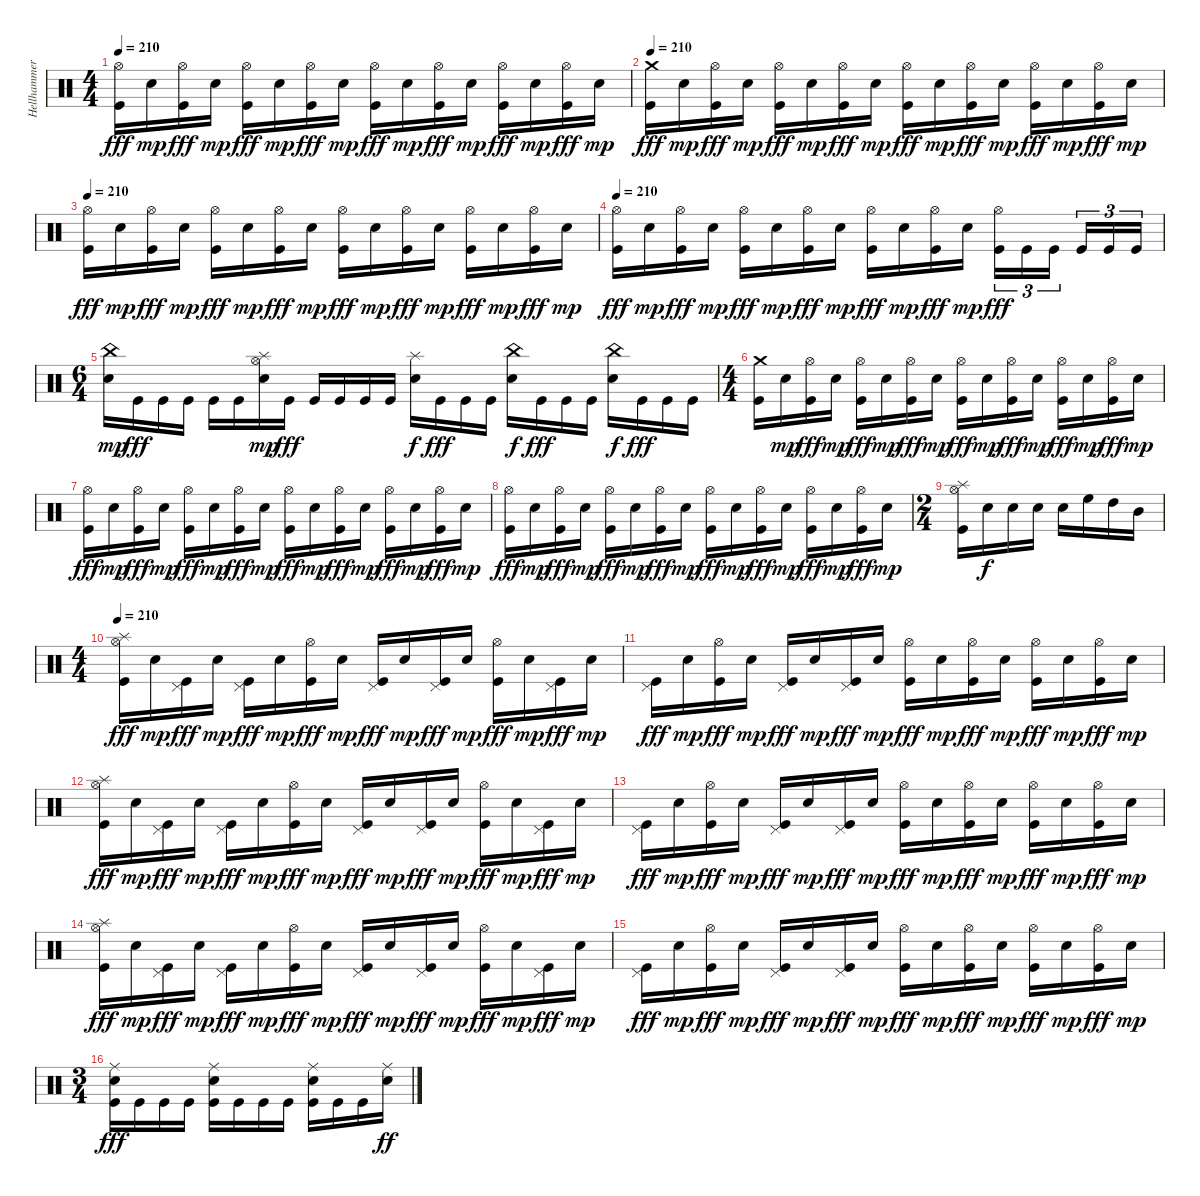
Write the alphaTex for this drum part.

\track ("Hellhammer" "Hellhammer") {instrument percussion}
\staff {score}
\articulation defaults
\ts (4 4)
\tempo 210
\clef neutral
\ks c
("Hi-Hat (open)" "Kick (hit)").16{dy fff} "Electric Snare (hit)".16{dy mp} ("Hi-Hat (open)" "Kick (hit)").16{dy fff} "Electric Snare (hit)".16{dy mp} ("Hi-Hat (open)" "Kick (hit)").16{dy fff} "Electric Snare (hit)".16{dy mp} ("Hi-Hat (open)" "Kick (hit)").16{dy fff} "Electric Snare (hit)".16{dy mp} ("Hi-Hat (open)" "Kick (hit)").16{dy fff} "Electric Snare (hit)".16{dy mp} ("Hi-Hat (open)" "Kick (hit)").16{dy fff} "Electric Snare (hit)".16{dy mp} ("Hi-Hat (open)" "Kick (hit)").16{dy fff} "Electric Snare (hit)".16{dy mp} ("Hi-Hat (open)" "Kick (hit)").16{dy fff} "Electric Snare (hit)".16{dy mp} |
\tempo 210
("Crash medium (hit)" "Kick (hit)").16{dy fff} "Electric Snare (hit)".16{dy mp} ("Hi-Hat (open)" "Kick (hit)").16{dy fff} "Electric Snare (hit)".16{dy mp} ("Hi-Hat (open)" "Kick (hit)").16{dy fff} "Electric Snare (hit)".16{dy mp} ("Hi-Hat (open)" "Kick (hit)").16{dy fff} "Electric Snare (hit)".16{dy mp} ("Hi-Hat (open)" "Kick (hit)").16{dy fff} "Electric Snare (hit)".16{dy mp} ("Hi-Hat (open)" "Kick (hit)").16{dy fff} "Electric Snare (hit)".16{dy mp} ("Hi-Hat (open)" "Kick (hit)").16{dy fff} "Electric Snare (hit)".16{dy mp} ("Hi-Hat (open)" "Kick (hit)").16{dy fff} "Electric Snare (hit)".16{dy mp} |
\tempo 210
("Hi-Hat (open)" "Kick (hit)").16{dy fff} "Electric Snare (hit)".16{dy mp} ("Hi-Hat (open)" "Kick (hit)").16{dy fff} "Electric Snare (hit)".16{dy mp} ("Hi-Hat (open)" "Kick (hit)").16{dy fff} "Electric Snare (hit)".16{dy mp} ("Hi-Hat (open)" "Kick (hit)").16{dy fff} "Electric Snare (hit)".16{dy mp} ("Hi-Hat (open)" "Kick (hit)").16{dy fff} "Electric Snare (hit)".16{dy mp} ("Hi-Hat (open)" "Kick (hit)").16{dy fff} "Electric Snare (hit)".16{dy mp} ("Hi-Hat (open)" "Kick (hit)").16{dy fff} "Electric Snare (hit)".16{dy mp} ("Hi-Hat (open)" "Kick (hit)").16{dy fff} "Electric Snare (hit)".16{dy mp} |
\tempo 210
("Hi-Hat (open)" "Kick (hit)").16{dy fff} "Electric Snare (hit)".16{dy mp} ("Hi-Hat (open)" "Kick (hit)").16{dy fff} "Electric Snare (hit)".16{dy mp} ("Hi-Hat (open)" "Kick (hit)").16{dy fff} "Electric Snare (hit)".16{dy mp} ("Hi-Hat (open)" "Kick (hit)").16{dy fff} "Electric Snare (hit)".16{dy mp} ("Hi-Hat (open)" "Kick (hit)").16{dy fff} "Electric Snare (hit)".16{dy mp} ("Hi-Hat (open)" "Kick (hit)").16{dy fff} "Electric Snare (hit)".16{dy mp} ("Hi-Hat (open)" "Kick (hit)").16{tu (3 2) dy fff} "Kick (hit)".16{tu (3 2)} "Kick (hit)".16{tu (3 2)} "Kick (hit)".16{tu (3 2)} "Kick (hit)".16{tu (3 2)} "Kick (hit)".16{tu (3 2)} |
\ts (6 4)
("China (hit)" "Electric Snare (hit)").16{dy mp} "Kick (hit)".16{dy fff} "Kick (hit)".16 "Kick (hit)".16 "Kick (hit)".16 "Kick (hit)".16 ("Hi-Hat (open)" "Splash (hit)" "Electric Snare (hit)").16{dy mp} "Kick (hit)".16{dy fff} "Kick (hit)".16 "Kick (hit)".16 "Kick (hit)".16 "Kick (hit)".16 ("Splash (hit)" "Electric Snare (hit)").16{dy f} "Kick (hit)".16{dy fff} "Kick (hit)".16 "Kick (hit)".16 ("China (hit)" "Electric Snare (hit)").16{dy f} "Kick (hit)".16{dy fff} "Kick (hit)".16 "Kick (hit)".16 ("China (hit)" "Electric Snare (hit)").16{dy f} "Kick (hit)".16{dy fff} "Kick (hit)".16 "Kick (hit)".16 |
\ts (4 4)
("Crash medium (hit)" "Kick (hit)").16 "Electric Snare (hit)".16{dy mp} ("Hi-Hat (open)" "Kick (hit)").16{dy fff} "Electric Snare (hit)".16{dy mp} ("Hi-Hat (open)" "Kick (hit)").16{dy fff} "Electric Snare (hit)".16{dy mp} ("Hi-Hat (open)" "Kick (hit)").16{dy fff} "Electric Snare (hit)".16{dy mp} ("Hi-Hat (open)" "Kick (hit)").16{dy fff} "Electric Snare (hit)".16{dy mp} ("Hi-Hat (open)" "Kick (hit)").16{dy fff} "Electric Snare (hit)".16{dy mp} ("Hi-Hat (open)" "Kick (hit)").16{dy fff} "Electric Snare (hit)".16{dy mp} ("Hi-Hat (open)" "Kick (hit)").16{dy fff} "Electric Snare (hit)".16{dy mp} |
("Hi-Hat (open)" "Kick (hit)").16{dy fff} "Electric Snare (hit)".16{dy mp} ("Hi-Hat (open)" "Kick (hit)").16{dy fff} "Electric Snare (hit)".16{dy mp} ("Hi-Hat (open)" "Kick (hit)").16{dy fff} "Electric Snare (hit)".16{dy mp} ("Hi-Hat (open)" "Kick (hit)").16{dy fff} "Electric Snare (hit)".16{dy mp} ("Hi-Hat (open)" "Kick (hit)").16{dy fff} "Electric Snare (hit)".16{dy mp} ("Hi-Hat (open)" "Kick (hit)").16{dy fff} "Electric Snare (hit)".16{dy mp} ("Hi-Hat (open)" "Kick (hit)").16{dy fff} "Electric Snare (hit)".16{dy mp} ("Hi-Hat (open)" "Kick (hit)").16{dy fff} "Electric Snare (hit)".16{dy mp} |
("Hi-Hat (open)" "Kick (hit)").16{dy fff} "Electric Snare (hit)".16{dy mp} ("Hi-Hat (open)" "Kick (hit)").16{dy fff} "Electric Snare (hit)".16{dy mp} ("Hi-Hat (open)" "Kick (hit)").16{dy fff} "Electric Snare (hit)".16{dy mp} ("Hi-Hat (open)" "Kick (hit)").16{dy fff} "Electric Snare (hit)".16{dy mp} ("Hi-Hat (open)" "Kick (hit)").16{dy fff} "Electric Snare (hit)".16{dy mp} ("Hi-Hat (open)" "Kick (hit)").16{dy fff} "Electric Snare (hit)".16{dy mp} ("Hi-Hat (open)" "Kick (hit)").16{dy fff} "Electric Snare (hit)".16{dy mp} ("Hi-Hat (open)" "Kick (hit)").16{dy fff} "Electric Snare (hit)".16{dy mp} |
\ts (2 4)
("Splash (hit)" "Hi-Hat (open)" "Kick (hit)").16 "Electric Snare (hit)".16{dy f} "Electric Snare (hit)".16 "Electric Snare (hit)".16 "Electric Snare (hit)".16 "High Floor Tom (hit)".16 "High Tom (hit)".16 "Mid Tom (hit)".16 |
\ts (4 4)
\tempo 210
("Splash (hit)" "Hi-Hat (open)" "Kick (hit)").16{dy fff} "Electric Snare (hit)".16{dy mp} ("Pedal Hi-Hat (hit)" "Kick (hit)").16{dy fff} "Electric Snare (hit)".16{dy mp} ("Pedal Hi-Hat (hit)" "Kick (hit)").16{dy fff} "Electric Snare (hit)".16{dy mp} ("Hi-Hat (open)" "Kick (hit)").16{dy fff} "Electric Snare (hit)".16{dy mp} ("Pedal Hi-Hat (hit)" "Kick (hit)").16{dy fff} "Electric Snare (hit)".16{dy mp} ("Pedal Hi-Hat (hit)" "Kick (hit)").16{dy fff} "Electric Snare (hit)".16{dy mp} ("Hi-Hat (open)" "Kick (hit)").16{dy fff} "Electric Snare (hit)".16{dy mp} ("Pedal Hi-Hat (hit)" "Kick (hit)").16{dy fff} "Electric Snare (hit)".16{dy mp} |
("Pedal Hi-Hat (hit)" "Kick (hit)").16{dy fff} "Electric Snare (hit)".16{dy mp} ("Hi-Hat (open)" "Kick (hit)").16{dy fff} "Electric Snare (hit)".16{dy mp} ("Pedal Hi-Hat (hit)" "Kick (hit)").16{dy fff} "Electric Snare (hit)".16{dy mp} ("Pedal Hi-Hat (hit)" "Kick (hit)").16{dy fff} "Electric Snare (hit)".16{dy mp} ("Hi-Hat (open)" "Kick (hit)").16{dy fff} "Electric Snare (hit)".16{dy mp} ("Hi-Hat (open)" "Kick (hit)").16{dy fff} "Electric Snare (hit)".16{dy mp} ("Hi-Hat (open)" "Kick (hit)").16{dy fff} "Electric Snare (hit)".16{dy mp} ("Hi-Hat (open)" "Kick (hit)").16{dy fff} "Electric Snare (hit)".16{dy mp} |
("Splash (hit)" "Hi-Hat (open)" "Kick (hit)").16{dy fff} "Electric Snare (hit)".16{dy mp} ("Pedal Hi-Hat (hit)" "Kick (hit)").16{dy fff} "Electric Snare (hit)".16{dy mp} ("Pedal Hi-Hat (hit)" "Kick (hit)").16{dy fff} "Electric Snare (hit)".16{dy mp} ("Hi-Hat (open)" "Kick (hit)").16{dy fff} "Electric Snare (hit)".16{dy mp} ("Pedal Hi-Hat (hit)" "Kick (hit)").16{dy fff} "Electric Snare (hit)".16{dy mp} ("Pedal Hi-Hat (hit)" "Kick (hit)").16{dy fff} "Electric Snare (hit)".16{dy mp} ("Hi-Hat (open)" "Kick (hit)").16{dy fff} "Electric Snare (hit)".16{dy mp} ("Pedal Hi-Hat (hit)" "Kick (hit)").16{dy fff} "Electric Snare (hit)".16{dy mp} |
("Pedal Hi-Hat (hit)" "Kick (hit)").16{dy fff} "Electric Snare (hit)".16{dy mp} ("Hi-Hat (open)" "Kick (hit)").16{dy fff} "Electric Snare (hit)".16{dy mp} ("Pedal Hi-Hat (hit)" "Kick (hit)").16{dy fff} "Electric Snare (hit)".16{dy mp} ("Pedal Hi-Hat (hit)" "Kick (hit)").16{dy fff} "Electric Snare (hit)".16{dy mp} ("Hi-Hat (open)" "Kick (hit)").16{dy fff} "Electric Snare (hit)".16{dy mp} ("Hi-Hat (open)" "Kick (hit)").16{dy fff} "Electric Snare (hit)".16{dy mp} ("Hi-Hat (open)" "Kick (hit)").16{dy fff} "Electric Snare (hit)".16{dy mp} ("Hi-Hat (open)" "Kick (hit)").16{dy fff} "Electric Snare (hit)".16{dy mp} |
("Splash (hit)" "Hi-Hat (open)" "Kick (hit)").16{dy fff} "Electric Snare (hit)".16{dy mp} ("Pedal Hi-Hat (hit)" "Kick (hit)").16{dy fff} "Electric Snare (hit)".16{dy mp} ("Pedal Hi-Hat (hit)" "Kick (hit)").16{dy fff} "Electric Snare (hit)".16{dy mp} ("Hi-Hat (open)" "Kick (hit)").16{dy fff} "Electric Snare (hit)".16{dy mp} ("Pedal Hi-Hat (hit)" "Kick (hit)").16{dy fff} "Electric Snare (hit)".16{dy mp} ("Pedal Hi-Hat (hit)" "Kick (hit)").16{dy fff} "Electric Snare (hit)".16{dy mp} ("Hi-Hat (open)" "Kick (hit)").16{dy fff} "Electric Snare (hit)".16{dy mp} ("Pedal Hi-Hat (hit)" "Kick (hit)").16{dy fff} "Electric Snare (hit)".16{dy mp} |
("Pedal Hi-Hat (hit)" "Kick (hit)").16{dy fff} "Electric Snare (hit)".16{dy mp} ("Hi-Hat (open)" "Kick (hit)").16{dy fff} "Electric Snare (hit)".16{dy mp} ("Pedal Hi-Hat (hit)" "Kick (hit)").16{dy fff} "Electric Snare (hit)".16{dy mp} ("Pedal Hi-Hat (hit)" "Kick (hit)").16{dy fff} "Electric Snare (hit)".16{dy mp} ("Hi-Hat (open)" "Kick (hit)").16{dy fff} "Electric Snare (hit)".16{dy mp} ("Hi-Hat (open)" "Kick (hit)").16{dy fff} "Electric Snare (hit)".16{dy mp} ("Hi-Hat (open)" "Kick (hit)").16{dy fff} "Electric Snare (hit)".16{dy mp} ("Hi-Hat (open)" "Kick (hit)").16{dy fff} "Electric Snare (hit)".16{dy mp} |
\ts (3 4)
("Ride (middle)" "Electric Snare (hit)" "Kick (hit)").16{dy fff} "Kick (hit)".16 "Kick (hit)".16 "Kick (hit)".16 ("Ride (middle)" "Electric Snare (hit)" "Kick (hit)").16 "Kick (hit)".16 "Kick (hit)".16 "Kick (hit)".16 ("Ride (middle)" "Electric Snare (hit)" "Kick (hit)").16 "Kick (hit)".16 "Kick (hit)".16 ("Ride (middle)" "Electric Snare (hit)").16{dy ff}
